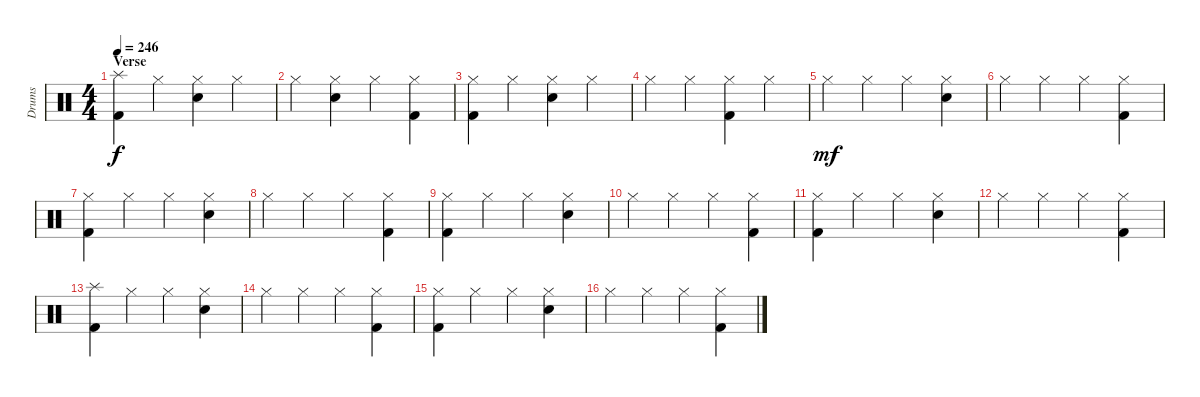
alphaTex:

\track ("Drums" "Drums") {instrument percussion}
\staff {score}
\articulation defaults
\ts (4 4)
\section ("" "Verse ")
\tempo 246
\clef neutral
\ks c
("Splash (hit)" "Kick (hit) 2").4{dy f} "Hi-Hat (closed)".4 ("Hi-Hat (closed)" "Snare (hit) 2").4 "Hi-Hat (closed)".4 |
"Hi-Hat (closed)".4 ("Hi-Hat (closed)" "Snare (hit) 2").4 "Hi-Hat (closed)".4 ("Hi-Hat (closed)" "Kick (hit) 2").4 |
("Hi-Hat (closed)" "Kick (hit) 2").4 "Hi-Hat (closed)".4 ("Hi-Hat (closed)" "Snare (hit) 2").4 "Hi-Hat (closed)".4 |
"Hi-Hat (closed)".4 "Hi-Hat (closed)".4 ("Hi-Hat (closed)" "Kick (hit) 2").4 "Hi-Hat (closed)".4 |
"Hi-Hat (closed)".4{dy mf} "Hi-Hat (closed)".4 "Hi-Hat (closed)".4 ("Hi-Hat (closed)" "Snare (hit) 2").4 |
"Hi-Hat (closed)".4 "Hi-Hat (closed)".4 "Hi-Hat (closed)".4 ("Hi-Hat (closed)" "Kick (hit) 2").4 |
("Hi-Hat (closed)" "Kick (hit) 2").4 "Hi-Hat (closed)".4 "Hi-Hat (closed)".4 ("Hi-Hat (closed)" "Snare (hit) 2").4 |
"Hi-Hat (closed)".4 "Hi-Hat (closed)".4 "Hi-Hat (closed)".4 ("Hi-Hat (closed)" "Kick (hit) 2").4 |
("Hi-Hat (closed)" "Kick (hit) 2").4 "Hi-Hat (closed)".4 "Hi-Hat (closed)".4 ("Hi-Hat (closed)" "Snare (hit) 2").4 |
"Hi-Hat (closed)".4 "Hi-Hat (closed)".4 "Hi-Hat (closed)".4 ("Hi-Hat (closed)" "Kick (hit) 2").4 |
("Hi-Hat (closed)" "Kick (hit) 2").4 "Hi-Hat (closed)".4 "Hi-Hat (closed)".4 ("Hi-Hat (closed)" "Snare (hit) 2").4 |
"Hi-Hat (closed)".4 "Hi-Hat (closed)".4 "Hi-Hat (closed)".4 ("Hi-Hat (closed)" "Kick (hit) 2").4 |
("Splash (hit)" "Kick (hit) 2").4 "Hi-Hat (closed)".4 "Hi-Hat (closed)".4 ("Hi-Hat (closed)" "Snare (hit) 2").4 |
"Hi-Hat (closed)".4 "Hi-Hat (closed)".4 "Hi-Hat (closed)".4 ("Hi-Hat (closed)" "Kick (hit) 2").4 |
("Hi-Hat (closed)" "Kick (hit) 2").4 "Hi-Hat (closed)".4 "Hi-Hat (closed)".4 ("Hi-Hat (closed)" "Snare (hit) 2").4 |
"Hi-Hat (closed)".4 "Hi-Hat (closed)".4 "Hi-Hat (closed)".4 ("Hi-Hat (closed)" "Kick (hit) 2").4
